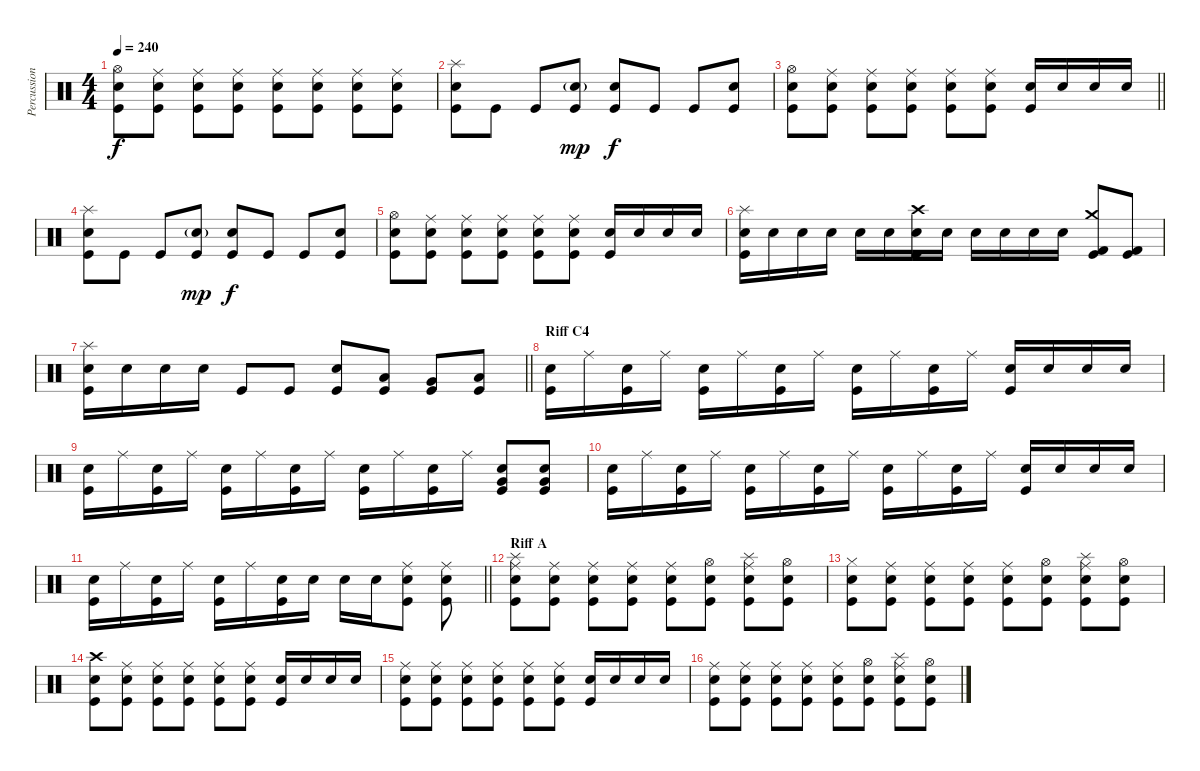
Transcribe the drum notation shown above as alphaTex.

\track ("Percussions" "Percussion") {instrument percussion}
\staff {score}
\articulation defaults
\ts (4 4)
\tempo 240
\clef neutral
\ks c
("Hi-Hat (open)" "Electric Snare (hit)" "Kick (hit)").8{dy f} ("Electric Snare (hit)" "Ride (middle)" "Kick (hit)").8 ("Electric Snare (hit)" "Ride (middle)" "Kick (hit)").8 ("Electric Snare (hit)" "Ride (middle)" "Kick (hit)").8 ("Electric Snare (hit)" "Ride (middle)" "Kick (hit)").8 ("Electric Snare (hit)" "Ride (middle)" "Kick (hit)").8 ("Electric Snare (hit)" "Ride (middle)" "Kick (hit)").8 ("Electric Snare (hit)" "Ride (middle)" "Kick (hit)").8 |
("Splash (hit)" "Electric Snare (hit)" "Kick (hit)").8 "Kick (hit)".8 "Kick (hit)".8 ("Electric Snare (hit)"{g} "Kick (hit)").8{dy mp} ("Electric Snare (hit)" "Kick (hit)").8{dy f} "Kick (hit)".8 "Kick (hit)".8 ("Electric Snare (hit)" "Kick (hit)").8 |
\barLineRight lightlight
("Hi-Hat (open)" "Electric Snare (hit)" "Kick (hit)").8 ("Electric Snare (hit)" "Ride (middle)" "Kick (hit)").8 ("Electric Snare (hit)" "Ride (middle)" "Kick (hit)").8 ("Electric Snare (hit)" "Ride (middle)" "Kick (hit)").8 ("Electric Snare (hit)" "Ride (middle)" "Kick (hit)").8 ("Electric Snare (hit)" "Ride (middle)" "Kick (hit)").8 ("Electric Snare (hit)" "Kick (hit)").16 "Electric Snare (hit)".16 "Electric Snare (hit)".16 "Electric Snare (hit)".16 |
\section ("" "")
("Splash (hit)" "Electric Snare (hit)" "Kick (hit)").8 "Kick (hit)".8 "Kick (hit)".8 ("Electric Snare (hit)"{g} "Kick (hit)").8{dy mp} ("Electric Snare (hit)" "Kick (hit)").8{dy f} "Kick (hit)".8 "Kick (hit)".8 ("Electric Snare (hit)" "Kick (hit)").8 |
("Hi-Hat (open)" "Electric Snare (hit)" "Kick (hit)").8 ("Electric Snare (hit)" "Ride (middle)" "Kick (hit)").8 ("Electric Snare (hit)" "Ride (middle)" "Kick (hit)").8 ("Electric Snare (hit)" "Ride (middle)" "Kick (hit)").8 ("Electric Snare (hit)" "Ride (middle)" "Kick (hit)").8 ("Electric Snare (hit)" "Ride (middle)" "Kick (hit)").8 ("Electric Snare (hit)" "Kick (hit)").16 "Electric Snare (hit)".16 "Electric Snare (hit)".16 "Electric Snare (hit)".16 |
("Splash (hit)" "Electric Snare (hit)" "Kick (hit)").16 "Electric Snare (hit)".16 "Electric Snare (hit)".16 "Electric Snare (hit)".16 "Electric Snare (hit)".16 "Electric Snare (hit)".16 ("Crash high (hit)" "Electric Snare (hit)" "Kick (hit)").16 "Electric Snare (hit)".16 "Electric Snare (hit)".16 "Electric Snare (hit)".16 "Electric Snare (hit)".16 "Electric Snare (hit)".16 ("Crash medium (hit)" "Kick (hit) 2" "Kick (hit)").8 ("Kick (hit) 2" "Kick (hit)").8 |
\barLineRight lightlight
("Splash (hit)" "Electric Snare (hit)" "Kick (hit)").16 "Electric Snare (hit)".16 "Electric Snare (hit)".16 "Electric Snare (hit)".16 "Kick (hit)".8 "Kick (hit)".8 ("Electric Snare (hit)" "Kick (hit)").8 ("Low Tom (hit)" "Kick (hit)").8 ("Very Low Tom (hit)" "Kick (hit)").8 ("Low Tom (hit)" "Kick (hit)").8 |
\section ("" "Riff C4")
("Electric Snare (hit)" "Kick (hit)").16 "Ride (middle)".16 ("Electric Snare (hit)" "Kick (hit)").16 "Ride (middle)".16 ("Electric Snare (hit)" "Kick (hit)").16 "Ride (middle)".16 ("Electric Snare (hit)" "Kick (hit)").16 "Ride (middle)".16 ("Electric Snare (hit)" "Kick (hit)").16 "Ride (middle)".16 ("Electric Snare (hit)" "Kick (hit)").16 "Ride (middle)".16 ("Electric Snare (hit)" "Kick (hit)").16 "Electric Snare (hit)".16 "Electric Snare (hit)".16 "Electric Snare (hit)".16 |
("Electric Snare (hit)" "Kick (hit)").16 "Ride (middle)".16 ("Electric Snare (hit)" "Kick (hit)").16 "Ride (middle)".16 ("Electric Snare (hit)" "Kick (hit)").16 "Ride (middle)".16 ("Electric Snare (hit)" "Kick (hit)").16 "Ride (middle)".16 ("Electric Snare (hit)" "Kick (hit)").16 "Ride (middle)".16 ("Electric Snare (hit)" "Kick (hit)").16 "Ride (middle)".16 ("Electric Snare (hit)" "Very Low Tom (hit)" "Kick (hit)").8 ("Electric Snare (hit)" "Very Low Tom (hit)" "Kick (hit)").8 |
("Electric Snare (hit)" "Kick (hit)").16 "Ride (middle)".16 ("Electric Snare (hit)" "Kick (hit)").16 "Ride (middle)".16 ("Electric Snare (hit)" "Kick (hit)").16 "Ride (middle)".16 ("Electric Snare (hit)" "Kick (hit)").16 "Ride (middle)".16 ("Electric Snare (hit)" "Kick (hit)").16 "Ride (middle)".16 ("Electric Snare (hit)" "Kick (hit)").16 "Ride (middle)".16 ("Electric Snare (hit)" "Kick (hit)").16 "Electric Snare (hit)".16 "Electric Snare (hit)".16 "Electric Snare (hit)".16 |
\barLineRight lightlight
("Electric Snare (hit)" "Kick (hit)").16 "Ride (middle)".16 ("Electric Snare (hit)" "Kick (hit)").16 "Ride (middle)".16 ("Electric Snare (hit)" "Kick (hit)").16 "Ride (middle)".16 ("Electric Snare (hit)" "Kick (hit)").16 "Electric Snare (hit)".16 "Electric Snare (hit)".16 "Electric Snare (hit)".16 ("Electric Snare (hit)" "Ride (middle)" "Kick (hit)").8 ("Electric Snare (hit)" "Ride (middle)" "Kick (hit)").8 |
\section ("" "Riff A")
("Splash (hit)" "Electric Snare (hit)" "Ride (middle)" "Kick (hit)").8 ("Electric Snare (hit)" "Ride (middle)" "Kick (hit)").8 ("Electric Snare (hit)" "Ride (middle)" "Kick (hit)").8 ("Electric Snare (hit)" "Ride (middle)" "Kick (hit)").8 ("Electric Snare (hit)" "Ride (middle)" "Kick (hit)").8 ("Hi-Hat (open)" "Electric Snare (hit)" "Kick (hit)").8 ("Splash (hit)" "Electric Snare (hit)" "Ride (middle)" "Kick (hit)").8 ("Hi-Hat (open)" "Electric Snare (hit)" "Kick (hit)").8 |
("Electric Snare (hit)" "Hi-Hat (closed)" "Kick (hit)").8 ("Electric Snare (hit)" "Ride (middle)" "Kick (hit)").8 ("Electric Snare (hit)" "Ride (middle)" "Kick (hit)").8 ("Electric Snare (hit)" "Ride (middle)" "Kick (hit)").8 ("Electric Snare (hit)" "Ride (middle)" "Kick (hit)").8 ("Hi-Hat (open)" "Electric Snare (hit)" "Kick (hit)").8 ("Splash (hit)" "Electric Snare (hit)" "Ride (middle)" "Kick (hit)").8 ("Hi-Hat (open)" "Electric Snare (hit)" "Kick (hit)").8 |
("Crash high (hit)" "Electric Snare (hit)" "Kick (hit)").8 ("Electric Snare (hit)" "Ride (middle)" "Kick (hit)").8 ("Electric Snare (hit)" "Ride (middle)" "Kick (hit)").8 ("Electric Snare (hit)" "Ride (middle)" "Kick (hit)").8 ("Electric Snare (hit)" "Ride (middle)" "Kick (hit)").8 ("Electric Snare (hit)" "Ride (middle)" "Kick (hit)").8 ("Electric Snare (hit)" "Kick (hit)").16 "Electric Snare (hit)".16 "Electric Snare (hit)".16 "Electric Snare (hit)".16 |
("Electric Snare (hit)" "Ride (middle)" "Kick (hit)").8 ("Electric Snare (hit)" "Ride (middle)" "Kick (hit)").8 ("Electric Snare (hit)" "Ride (middle)" "Kick (hit)").8 ("Electric Snare (hit)" "Ride (middle)" "Kick (hit)").8 ("Electric Snare (hit)" "Ride (middle)" "Kick (hit)").8 ("Electric Snare (hit)" "Ride (middle)" "Kick (hit)").8 ("Electric Snare (hit)" "Kick (hit)").16 "Electric Snare (hit)".16 "Electric Snare (hit)".16 "Electric Snare (hit)".16 |
("Electric Snare (hit)" "Ride (middle)" "Kick (hit)").8 ("Electric Snare (hit)" "Ride (middle)" "Kick (hit)").8 ("Electric Snare (hit)" "Ride (middle)" "Kick (hit)").8 ("Electric Snare (hit)" "Ride (middle)" "Kick (hit)").8 ("Electric Snare (hit)" "Ride (middle)" "Kick (hit)").8 ("Hi-Hat (open)" "Electric Snare (hit)" "Kick (hit)").8 ("Splash (hit)" "Electric Snare (hit)" "Ride (middle)" "Kick (hit)").8 ("Hi-Hat (open)" "Electric Snare (hit)" "Kick (hit)").8
